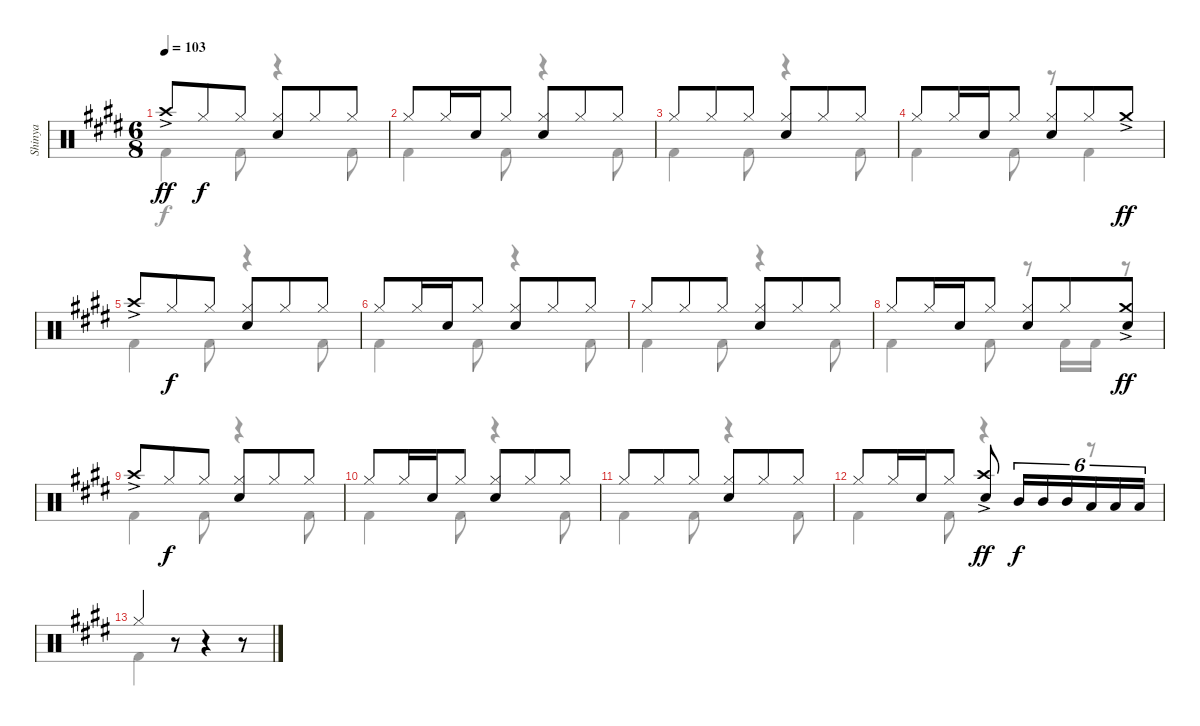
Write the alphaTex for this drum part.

\track ("Shinya" "Shinya") {instrument percussion}
\staff {score}
\articulation defaults
\voice
\ts (6 8)
\tempo 103
\clef neutral
\ks c#minor "Crash high (hit)"{ac}.8{dy ff} "Hi-Hat (closed)".8{dy f} "Hi-Hat (closed)".8
("Hi-Hat (closed)" "Snare (hit) 2").8 "Hi-Hat (closed)".8 "Hi-Hat (closed)".8 |
"Hi-Hat (closed)".8 "Hi-Hat (closed)".16 "Snare (hit) 2".16 "Hi-Hat (closed)".8 ("Hi-Hat (closed)" "Snare (hit) 2").8 "Hi-Hat (closed)".8 "Hi-Hat (closed)".8 |
"Hi-Hat (closed)".8 "Hi-Hat (closed)".8 "Hi-Hat (closed)".8 ("Hi-Hat (closed)" "Snare (hit) 2").8 "Hi-Hat (closed)".8 "Hi-Hat (closed)".8 |
"Hi-Hat (closed)".8 "Hi-Hat (closed)".16 "Snare (hit) 2".16 "Hi-Hat (closed)".8 ("Hi-Hat (closed)" "Snare (hit) 2").8 "Hi-Hat (closed)".8 "Crash medium (hit)"{ac}.8{dy ff} |
"Crash high (hit)"{ac}.8 "Hi-Hat (closed)".8{dy f} "Hi-Hat (closed)".8 ("Hi-Hat (closed)" "Snare (hit) 2").8 "Hi-Hat (closed)".8 "Hi-Hat (closed)".8 |
"Hi-Hat (closed)".8 "Hi-Hat (closed)".16 "Snare (hit) 2".16 "Hi-Hat (closed)".8 ("Hi-Hat (closed)" "Snare (hit) 2").8 "Hi-Hat (closed)".8 "Hi-Hat (closed)".8 |
"Hi-Hat (closed)".8 "Hi-Hat (closed)".8 "Hi-Hat (closed)".8 ("Hi-Hat (closed)" "Snare (hit) 2").8 "Hi-Hat (closed)".8 "Hi-Hat (closed)".8 |
"Hi-Hat (closed)".8 "Hi-Hat (closed)".16 "Snare (hit) 2".16 "Hi-Hat (closed)".8 ("Hi-Hat (closed)" "Snare (hit) 2").8 "Hi-Hat (closed)".8 ("Crash medium (hit)"{ac} "Snare (hit) 2").8{dy ff} |
"Crash high (hit)"{ac}.8 "Hi-Hat (closed)".8{dy f} "Hi-Hat (closed)".8 ("Hi-Hat (closed)" "Snare (hit) 2").8 "Hi-Hat (closed)".8 "Hi-Hat (closed)".8 |
"Hi-Hat (closed)".8 "Hi-Hat (closed)".16 "Snare (hit) 2".16 "Hi-Hat (closed)".8 ("Hi-Hat (closed)" "Snare (hit) 2").8 "Hi-Hat (closed)".8 "Hi-Hat (closed)".8 |
"Hi-Hat (closed)".8 "Hi-Hat (closed)".8 "Hi-Hat (closed)".8 ("Hi-Hat (closed)" "Snare (hit) 2").8 "Hi-Hat (closed)".8 "Hi-Hat (closed)".8 |
"Hi-Hat (closed)".8 "Hi-Hat (closed)".16 "Snare (hit) 2".16 "Hi-Hat (closed)".8 ("Crash high (hit)"{ac} "Snare (hit) 2").8{dy ff} "Mid Tom (hit)".16{tu (6 4) dy f} "Mid Tom (hit)".16{tu (6 4)} "Mid Tom (hit)".16{tu (6 4)} "Low Tom (hit)".16{tu (6 4)} "Low Tom (hit)".16{tu (6 4)} "Low Tom (hit)".16{tu (6 4)} |
"Hi-Hat (closed)".4 r.8 r.4 r.8
\voice
\clef neutral
\ottava regular
\simile none
\ks c#minor "Kick (hit) 2".4{dy f} "Kick (hit) 2".8
r.4 "Kick (hit) 2".8 |
"Kick (hit) 2".4 "Kick (hit) 2".8 r.4 "Kick (hit) 2".8 |
"Kick (hit) 2".4 "Kick (hit) 2".8 r.4 "Kick (hit) 2".8 |
"Kick (hit) 2".4 "Kick (hit) 2".8 r.8 "Kick (hit) 2".4 |
"Kick (hit) 2".4 "Kick (hit) 2".8 r.4 "Kick (hit) 2".8 |
"Kick (hit) 2".4 "Kick (hit) 2".8 r.4 "Kick (hit) 2".8 |
"Kick (hit) 2".4 "Kick (hit) 2".8 r.4 "Kick (hit) 2".8 |
"Kick (hit) 2".4 "Kick (hit) 2".8 r.8 "Kick (hit) 2".16 "Kick (hit) 2".16 r.8 |
"Kick (hit) 2".4 "Kick (hit) 2".8 r.4 "Kick (hit) 2".8 |
"Kick (hit) 2".4 "Kick (hit) 2".8 r.4 "Kick (hit) 2".8 |
"Kick (hit) 2".4 "Kick (hit) 2".8 r.4 "Kick (hit) 2".8 |
"Kick (hit) 2".4 "Kick (hit) 2".8 r.4 r.8 |
"Kick (hit) 2".4 r.8 r.4 r.8
